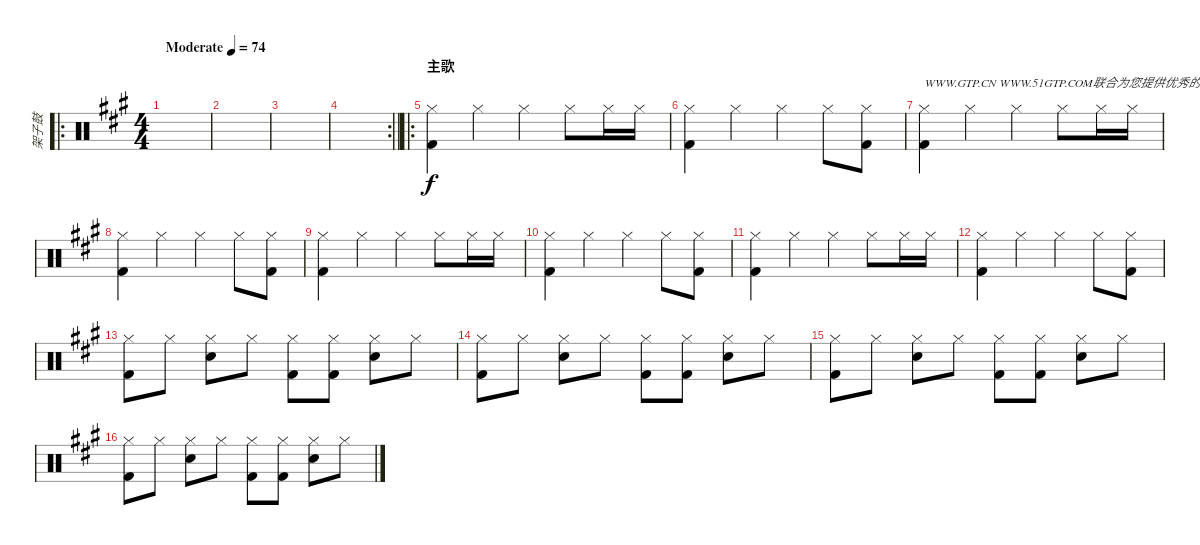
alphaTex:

\track ("架子鼓" "架子鼓") {instrument percussion}
\staff {score}
\articulation defaults
\ro
\ts (4 4)
\tempo (74 "Moderate")
\clef neutral
\ks a
|
|
|
\rc 2
\barLineRight lightlight
|
\ro
\section ("" "主歌")
("Hi-Hat (closed)" "Kick (hit) 2").4 "Hi-Hat (closed)".4 "Hi-Hat (closed)".4 "Hi-Hat (closed)".8 "Hi-Hat (closed)".16 "Hi-Hat (closed)".16 |
("Hi-Hat (closed)" "Kick (hit) 2").4 "Hi-Hat (closed)".4 "Hi-Hat (closed)".4 "Hi-Hat (closed)".8 ("Hi-Hat (closed)" "Kick (hit) 2").8 |
("Hi-Hat (closed)" "Kick (hit) 2").4{txt "WWW.GTP.CN WWW.51GTP.COM联合为您提供优秀的GTP!"} "Hi-Hat (closed)".4 "Hi-Hat (closed)".4 "Hi-Hat (closed)".8 "Hi-Hat (closed)".16 "Hi-Hat (closed)".16 |
("Hi-Hat (closed)" "Kick (hit) 2").4 "Hi-Hat (closed)".4 "Hi-Hat (closed)".4 "Hi-Hat (closed)".8 ("Hi-Hat (closed)" "Kick (hit) 2").8 |
("Hi-Hat (closed)" "Kick (hit) 2").4 "Hi-Hat (closed)".4 "Hi-Hat (closed)".4 "Hi-Hat (closed)".8 "Hi-Hat (closed)".16 "Hi-Hat (closed)".16 |
("Hi-Hat (closed)" "Kick (hit) 2").4 "Hi-Hat (closed)".4 "Hi-Hat (closed)".4 "Hi-Hat (closed)".8 ("Hi-Hat (closed)" "Kick (hit) 2").8 |
("Hi-Hat (closed)" "Kick (hit) 2").4 "Hi-Hat (closed)".4 "Hi-Hat (closed)".4 "Hi-Hat (closed)".8 "Hi-Hat (closed)".16 "Hi-Hat (closed)".16 |
("Hi-Hat (closed)" "Kick (hit) 2").4 "Hi-Hat (closed)".4 "Hi-Hat (closed)".4 "Hi-Hat (closed)".8 ("Hi-Hat (closed)" "Kick (hit) 2").8 |
("Hi-Hat (closed)" "Kick (hit) 2").8 "Hi-Hat (closed)".8 ("Hi-Hat (closed)" "Electric Snare (hit)").8 "Hi-Hat (closed)".8 ("Hi-Hat (closed)" "Kick (hit) 2").8 ("Hi-Hat (closed)" "Kick (hit) 2").8 ("Hi-Hat (closed)" "Electric Snare (hit)").8 "Hi-Hat (closed)".8 |
("Hi-Hat (closed)" "Kick (hit) 2").8 "Hi-Hat (closed)".8 ("Hi-Hat (closed)" "Electric Snare (hit)").8 "Hi-Hat (closed)".8 ("Hi-Hat (closed)" "Kick (hit) 2").8 ("Hi-Hat (closed)" "Kick (hit) 2").8 ("Hi-Hat (closed)" "Electric Snare (hit)").8 "Hi-Hat (closed)".8 |
("Hi-Hat (closed)" "Kick (hit) 2").8 "Hi-Hat (closed)".8 ("Hi-Hat (closed)" "Electric Snare (hit)").8 "Hi-Hat (closed)".8 ("Hi-Hat (closed)" "Kick (hit) 2").8 ("Hi-Hat (closed)" "Kick (hit) 2").8 ("Hi-Hat (closed)" "Electric Snare (hit)").8 "Hi-Hat (closed)".8 |
("Hi-Hat (closed)" "Kick (hit) 2").8 "Hi-Hat (closed)".8 ("Hi-Hat (closed)" "Electric Snare (hit)").8 "Hi-Hat (closed)".8 ("Hi-Hat (closed)" "Kick (hit) 2").8 ("Hi-Hat (closed)" "Kick (hit) 2").8 ("Hi-Hat (closed)" "Electric Snare (hit)").8 "Hi-Hat (closed)".8
